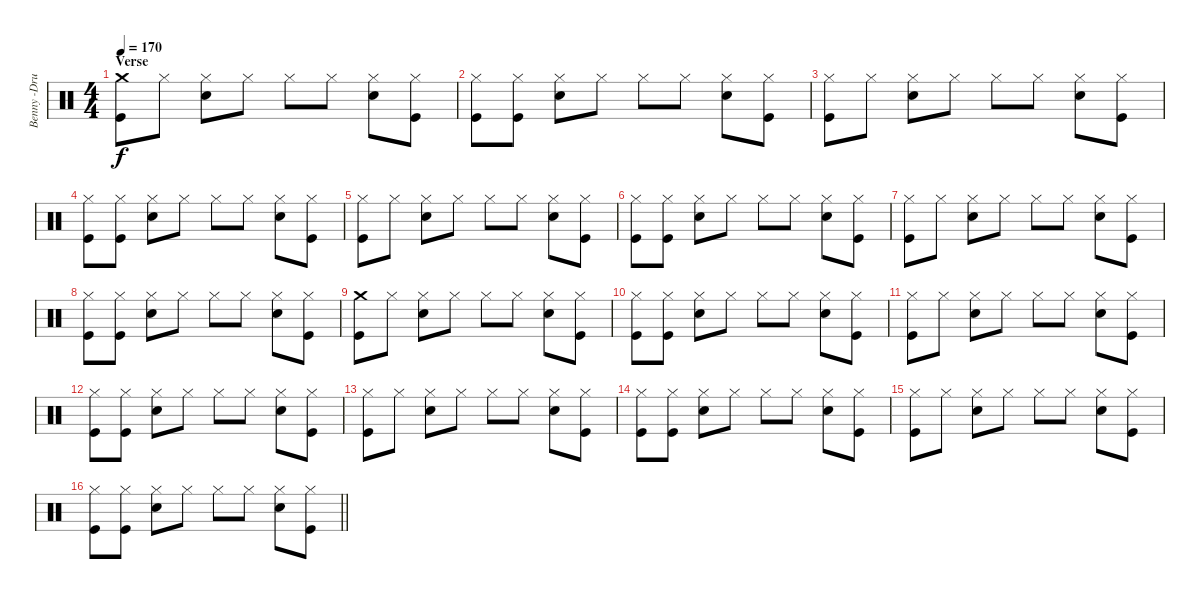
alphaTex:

\track ("Benny -Drums" "Benny -Dru") {instrument percussion}
\staff {score}
\articulation defaults
\ts (4 4)
\section ("" "Verse")
\tempo 170
\clef neutral
\ks c
("Crash medium (hit)" "Kick (hit)").8{dy f} "Hi-Hat (closed)".8 ("Hi-Hat (closed)" "Electric Snare (hit)").8 "Hi-Hat (closed)".8 "Hi-Hat (closed)".8 "Hi-Hat (closed)".8 ("Hi-Hat (closed)" "Electric Snare (hit)").8 ("Hi-Hat (closed)" "Kick (hit)").8 |
("Hi-Hat (closed)" "Kick (hit)").8 ("Hi-Hat (closed)" "Kick (hit)").8 ("Hi-Hat (closed)" "Electric Snare (hit)").8 "Hi-Hat (closed)".8 "Hi-Hat (closed)".8 "Hi-Hat (closed)".8 ("Hi-Hat (closed)" "Electric Snare (hit)").8 ("Hi-Hat (closed)" "Kick (hit)").8 |
("Hi-Hat (closed)" "Kick (hit)").8 "Hi-Hat (closed)".8 ("Hi-Hat (closed)" "Electric Snare (hit)").8 "Hi-Hat (closed)".8 "Hi-Hat (closed)".8 "Hi-Hat (closed)".8 ("Hi-Hat (closed)" "Electric Snare (hit)").8 ("Hi-Hat (closed)" "Kick (hit)").8 |
("Hi-Hat (closed)" "Kick (hit)").8 ("Hi-Hat (closed)" "Kick (hit)").8 ("Hi-Hat (closed)" "Electric Snare (hit)").8 "Hi-Hat (closed)".8 "Hi-Hat (closed)".8 "Hi-Hat (closed)".8 ("Hi-Hat (closed)" "Electric Snare (hit)").8 ("Hi-Hat (closed)" "Kick (hit)").8 |
("Hi-Hat (closed)" "Kick (hit)").8 "Hi-Hat (closed)".8 ("Hi-Hat (closed)" "Electric Snare (hit)").8 "Hi-Hat (closed)".8 "Hi-Hat (closed)".8 "Hi-Hat (closed)".8 ("Hi-Hat (closed)" "Electric Snare (hit)").8 ("Hi-Hat (closed)" "Kick (hit)").8 |
("Hi-Hat (closed)" "Kick (hit)").8 ("Hi-Hat (closed)" "Kick (hit)").8 ("Hi-Hat (closed)" "Electric Snare (hit)").8 "Hi-Hat (closed)".8 "Hi-Hat (closed)".8 "Hi-Hat (closed)".8 ("Hi-Hat (closed)" "Electric Snare (hit)").8 ("Hi-Hat (closed)" "Kick (hit)").8 |
("Hi-Hat (closed)" "Kick (hit)").8 "Hi-Hat (closed)".8 ("Hi-Hat (closed)" "Electric Snare (hit)").8 "Hi-Hat (closed)".8 "Hi-Hat (closed)".8 "Hi-Hat (closed)".8 ("Hi-Hat (closed)" "Electric Snare (hit)").8 ("Hi-Hat (closed)" "Kick (hit)").8 |
("Hi-Hat (closed)" "Kick (hit)").8 ("Hi-Hat (closed)" "Kick (hit)").8 ("Hi-Hat (closed)" "Electric Snare (hit)").8 "Hi-Hat (closed)".8 "Hi-Hat (closed)".8 "Hi-Hat (closed)".8 ("Hi-Hat (closed)" "Electric Snare (hit)").8 ("Hi-Hat (closed)" "Kick (hit)").8 |
("Crash medium (hit)" "Kick (hit)").8 "Hi-Hat (closed)".8 ("Hi-Hat (closed)" "Electric Snare (hit)").8 "Hi-Hat (closed)".8 "Hi-Hat (closed)".8 "Hi-Hat (closed)".8 ("Hi-Hat (closed)" "Electric Snare (hit)").8 ("Hi-Hat (closed)" "Kick (hit)").8 |
("Hi-Hat (closed)" "Kick (hit)").8 ("Hi-Hat (closed)" "Kick (hit)").8 ("Hi-Hat (closed)" "Electric Snare (hit)").8 "Hi-Hat (closed)".8 "Hi-Hat (closed)".8 "Hi-Hat (closed)".8 ("Hi-Hat (closed)" "Electric Snare (hit)").8 ("Hi-Hat (closed)" "Kick (hit)").8 |
("Hi-Hat (closed)" "Kick (hit)").8 "Hi-Hat (closed)".8 ("Hi-Hat (closed)" "Electric Snare (hit)").8 "Hi-Hat (closed)".8 "Hi-Hat (closed)".8 "Hi-Hat (closed)".8 ("Hi-Hat (closed)" "Electric Snare (hit)").8 ("Hi-Hat (closed)" "Kick (hit)").8 |
("Hi-Hat (closed)" "Kick (hit)").8 ("Hi-Hat (closed)" "Kick (hit)").8 ("Hi-Hat (closed)" "Electric Snare (hit)").8 "Hi-Hat (closed)".8 "Hi-Hat (closed)".8 "Hi-Hat (closed)".8 ("Hi-Hat (closed)" "Electric Snare (hit)").8 ("Hi-Hat (closed)" "Kick (hit)").8 |
("Hi-Hat (closed)" "Kick (hit)").8 "Hi-Hat (closed)".8 ("Hi-Hat (closed)" "Electric Snare (hit)").8 "Hi-Hat (closed)".8 "Hi-Hat (closed)".8 "Hi-Hat (closed)".8 ("Hi-Hat (closed)" "Electric Snare (hit)").8 ("Hi-Hat (closed)" "Kick (hit)").8 |
("Hi-Hat (closed)" "Kick (hit)").8 ("Hi-Hat (closed)" "Kick (hit)").8 ("Hi-Hat (closed)" "Electric Snare (hit)").8 "Hi-Hat (closed)".8 "Hi-Hat (closed)".8 "Hi-Hat (closed)".8 ("Hi-Hat (closed)" "Electric Snare (hit)").8 ("Hi-Hat (closed)" "Kick (hit)").8 |
("Hi-Hat (closed)" "Kick (hit)").8 "Hi-Hat (closed)".8 ("Hi-Hat (closed)" "Electric Snare (hit)").8 "Hi-Hat (closed)".8 "Hi-Hat (closed)".8 "Hi-Hat (closed)".8 ("Hi-Hat (closed)" "Electric Snare (hit)").8 ("Hi-Hat (closed)" "Kick (hit)").8 |
\barLineRight lightlight
("Hi-Hat (closed)" "Kick (hit)").8 ("Hi-Hat (closed)" "Kick (hit)").8 ("Hi-Hat (closed)" "Electric Snare (hit)").8 "Hi-Hat (closed)".8 "Hi-Hat (closed)".8 "Hi-Hat (closed)".8 ("Hi-Hat (closed)" "Electric Snare (hit)").8 ("Hi-Hat (closed)" "Kick (hit)").8
